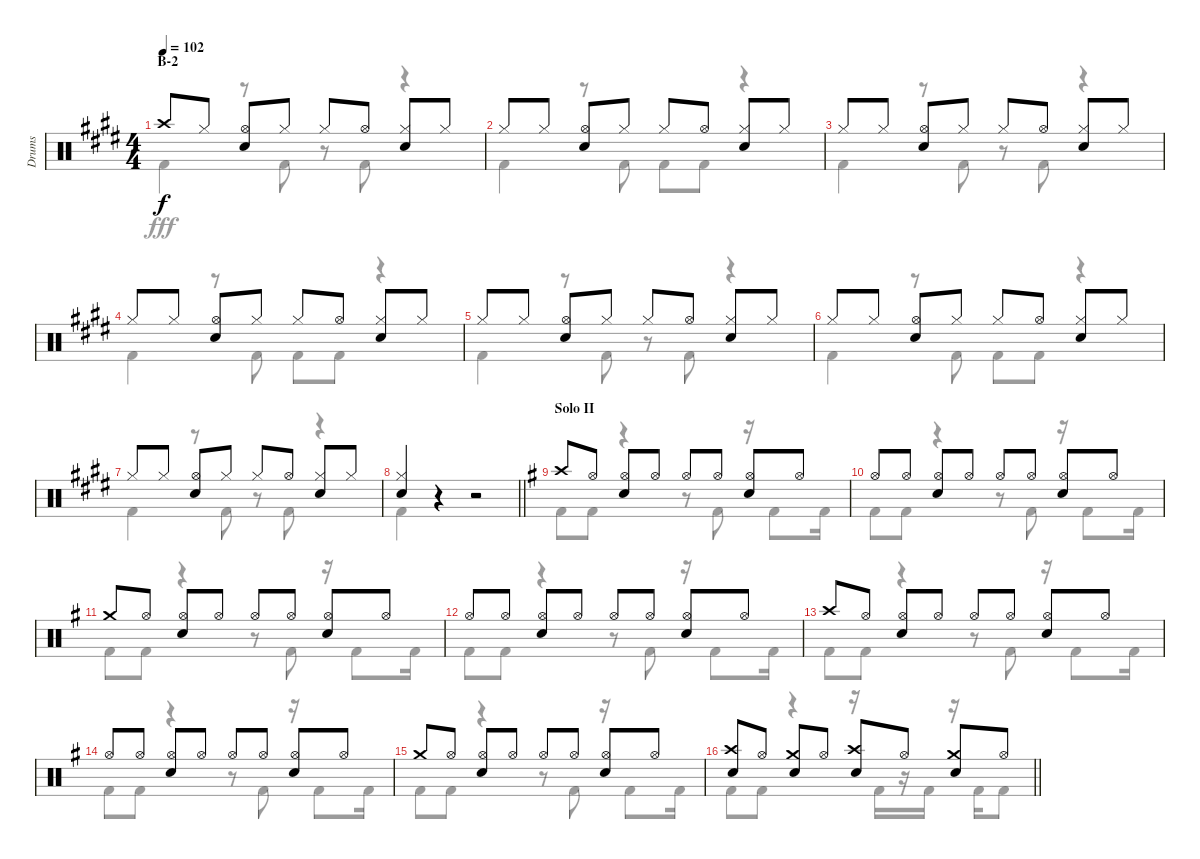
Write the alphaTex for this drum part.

\track ("Drums" "Drums") {instrument percussion}
\staff {score}
\articulation defaults
\voice
\ts (4 4)
\section ("" "B-2")
\tempo 102
\clef neutral
\ks e "Crash high (hit)".8{dy f} "Hi-Hat (closed)".8
("Hi-Hat (open)" "Snare (hit) 2").8 "Hi-Hat (closed)".8 "Hi-Hat (closed)".8 "Hi-Hat (open)".8 ("Hi-Hat (closed)" "Snare (hit) 2").8 "Hi-Hat (closed)".8 |
"Hi-Hat (closed)".8 "Hi-Hat (closed)".8 ("Hi-Hat (open)" "Snare (hit) 2").8 "Hi-Hat (closed)".8 "Hi-Hat (closed)".8 "Hi-Hat (open)".8 ("Hi-Hat (closed)" "Snare (hit) 2").8 "Hi-Hat (closed)".8 |
"Hi-Hat (closed)".8 "Hi-Hat (closed)".8 ("Hi-Hat (open)" "Snare (hit) 2").8 "Hi-Hat (closed)".8 "Hi-Hat (closed)".8 "Hi-Hat (open)".8 ("Hi-Hat (closed)" "Snare (hit) 2").8 "Hi-Hat (closed)".8 |
"Hi-Hat (closed)".8 "Hi-Hat (closed)".8 ("Hi-Hat (open)" "Snare (hit) 2").8 "Hi-Hat (closed)".8 "Hi-Hat (closed)".8 "Hi-Hat (open)".8 ("Hi-Hat (closed)" "Snare (hit) 2").8 "Hi-Hat (closed)".8 |
"Hi-Hat (closed)".8 "Hi-Hat (closed)".8 ("Hi-Hat (open)" "Snare (hit) 2").8 "Hi-Hat (closed)".8 "Hi-Hat (closed)".8 "Hi-Hat (open)".8 ("Hi-Hat (closed)" "Snare (hit) 2").8 "Hi-Hat (closed)".8 |
"Hi-Hat (closed)".8 "Hi-Hat (closed)".8 ("Hi-Hat (open)" "Snare (hit) 2").8 "Hi-Hat (closed)".8 "Hi-Hat (closed)".8 "Hi-Hat (open)".8 ("Hi-Hat (closed)" "Snare (hit) 2").8 "Hi-Hat (closed)".8 |
"Hi-Hat (closed)".8 "Hi-Hat (closed)".8 ("Hi-Hat (open)" "Snare (hit) 2").8 "Hi-Hat (closed)".8 "Hi-Hat (closed)".8 "Hi-Hat (open)".8 ("Hi-Hat (closed)" "Snare (hit) 2").8 "Hi-Hat (closed)".8 |
\barLineRight lightlight
("Hi-Hat (closed)" "Snare (hit) 2").4 r.4 r.2 |
\section ("" "Solo II")
\ks g "Crash high (hit)".8 "Hi-Hat (open)".8
("Hi-Hat (open)" "Snare (hit) 2").8 "Hi-Hat (open)".8 "Hi-Hat (open)".8 "Hi-Hat (open)".8 ("Hi-Hat (open)" "Snare (hit) 2").8 "Hi-Hat (open)".8 |
"Hi-Hat (open)".8 "Hi-Hat (open)".8 ("Hi-Hat (open)" "Snare (hit) 2").8 "Hi-Hat (open)".8 "Hi-Hat (open)".8 "Hi-Hat (open)".8 ("Hi-Hat (open)" "Snare (hit) 2").8 "Hi-Hat (open)".8 |
"Crash medium (hit)".8 "Hi-Hat (open)".8 ("Hi-Hat (open)" "Snare (hit) 2").8 "Hi-Hat (open)".8 "Hi-Hat (open)".8 "Hi-Hat (open)".8 ("Hi-Hat (open)" "Snare (hit) 2").8 "Hi-Hat (open)".8 |
"Hi-Hat (open)".8 "Hi-Hat (open)".8 ("Hi-Hat (open)" "Snare (hit) 2").8 "Hi-Hat (open)".8 "Hi-Hat (open)".8 "Hi-Hat (open)".8 ("Hi-Hat (open)" "Snare (hit) 2").8 "Hi-Hat (open)".8 |
"Crash high (hit)".8 "Hi-Hat (open)".8 ("Hi-Hat (open)" "Snare (hit) 2").8 "Hi-Hat (open)".8 "Hi-Hat (open)".8 "Hi-Hat (open)".8 ("Hi-Hat (open)" "Snare (hit) 2").8 "Hi-Hat (open)".8 |
"Hi-Hat (open)".8 "Hi-Hat (open)".8 ("Hi-Hat (open)" "Snare (hit) 2").8 "Hi-Hat (open)".8 "Hi-Hat (open)".8 "Hi-Hat (open)".8 ("Hi-Hat (open)" "Snare (hit) 2").8 "Hi-Hat (open)".8 |
"Crash medium (hit)".8 "Hi-Hat (open)".8 ("Hi-Hat (open)" "Snare (hit) 2").8 "Hi-Hat (open)".8 "Hi-Hat (open)".8 "Hi-Hat (open)".8 ("Hi-Hat (open)" "Snare (hit) 2").8 "Hi-Hat (open)".8 |
\barLineRight lightlight
("Crash high (hit)" "Snare (hit) 2").8 "Hi-Hat (open)".8 ("Crash medium (hit)" "Snare (hit) 2").8 "Hi-Hat (open)".8 ("Crash high (hit)" "Snare (hit) 2").8 "Hi-Hat (open)".8 ("Crash medium (hit)" "Snare (hit) 2").8 "Hi-Hat (open)".8
\voice
\clef neutral
\ottava regular
\simile none
\ks e "Kick (hit) 2".4{dy fff}
r.8 "Kick (hit) 2".8 r.8 "Kick (hit) 2".8 r.4 |
"Kick (hit) 2".4 r.8 "Kick (hit) 2".8 "Kick (hit) 2".8 "Kick (hit) 2".8 r.4 |
"Kick (hit) 2".4 r.8 "Kick (hit) 2".8 r.8 "Kick (hit) 2".8 r.4 |
"Kick (hit) 2".4 r.8 "Kick (hit) 2".8 "Kick (hit) 2".8 "Kick (hit) 2".8 r.4 |
"Kick (hit) 2".4 r.8 "Kick (hit) 2".8 r.8 "Kick (hit) 2".8 r.4 |
"Kick (hit) 2".4 r.8 "Kick (hit) 2".8 "Kick (hit) 2".8 "Kick (hit) 2".8 r.4 |
"Kick (hit) 2".4 r.8 "Kick (hit) 2".8 r.8 "Kick (hit) 2".8 r.4 |
\barLineRight lightlight "Kick (hit) 2".4
r.4 r.2 |
\ks g "Kick (hit) 2".8 "Kick (hit) 2".8
r.4 r.8 "Kick (hit) 2".8 r.16 "Kick (hit) 2".8 "Kick (hit) 2".16 |
"Kick (hit) 2".8 "Kick (hit) 2".8 r.4 r.8 "Kick (hit) 2".8 r.16 "Kick (hit) 2".8 "Kick (hit) 2".16 |
"Kick (hit) 2".8 "Kick (hit) 2".8 r.4 r.8 "Kick (hit) 2".8 r.16 "Kick (hit) 2".8 "Kick (hit) 2".16 |
"Kick (hit) 2".8 "Kick (hit) 2".8 r.4 r.8 "Kick (hit) 2".8 r.16 "Kick (hit) 2".8 "Kick (hit) 2".16 |
"Kick (hit) 2".8 "Kick (hit) 2".8 r.4 r.8 "Kick (hit) 2".8 r.16 "Kick (hit) 2".8 "Kick (hit) 2".16 |
"Kick (hit) 2".8 "Kick (hit) 2".8 r.4 r.8 "Kick (hit) 2".8 r.16 "Kick (hit) 2".8 "Kick (hit) 2".16 |
"Kick (hit) 2".8 "Kick (hit) 2".8 r.4 r.8 "Kick (hit) 2".8 r.16 "Kick (hit) 2".8 "Kick (hit) 2".16 |
\barLineRight lightlight "Kick (hit) 2".8 "Kick (hit) 2".8
r.4 r.16 "Kick (hit) 2".16 r.16 "Kick (hit) 2".16 r.16 "Kick (hit) 2".16 "Kick (hit) 2".8
